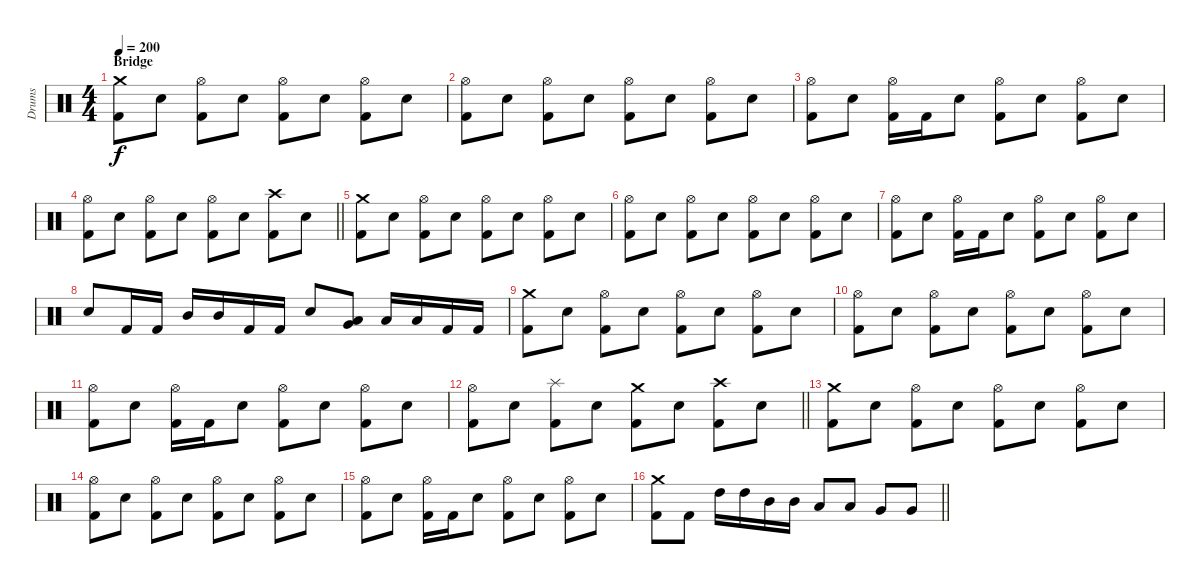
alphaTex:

\track ("Drums" "Drums") {instrument percussion}
\staff {score}
\articulation defaults
\ts (4 4)
\section ("" "Bridge")
\tempo 200
\clef neutral
\ks c
("Crash medium (hit)" "Kick (hit) 2").8{dy f} "Electric Snare (hit)".8 ("Hi-Hat (open)" "Kick (hit) 2").8 "Electric Snare (hit)".8 ("Hi-Hat (open)" "Kick (hit) 2").8 "Electric Snare (hit)".8 ("Hi-Hat (open)" "Kick (hit) 2").8 "Electric Snare (hit)".8 |
("Hi-Hat (open)" "Kick (hit) 2").8 "Electric Snare (hit)".8 ("Hi-Hat (open)" "Kick (hit) 2").8 "Electric Snare (hit)".8 ("Hi-Hat (open)" "Kick (hit) 2").8 "Electric Snare (hit)".8 ("Hi-Hat (open)" "Kick (hit) 2").8 "Electric Snare (hit)".8 |
("Hi-Hat (open)" "Kick (hit) 2").8 "Electric Snare (hit)".8 ("Hi-Hat (open)" "Kick (hit) 2").16 "Kick (hit) 2".16 "Electric Snare (hit)".8 ("Hi-Hat (open)" "Kick (hit) 2").8 "Electric Snare (hit)".8 ("Hi-Hat (open)" "Kick (hit) 2").8 "Electric Snare (hit)".8 |
\barLineRight lightlight
("Hi-Hat (open)" "Kick (hit) 2").8 "Electric Snare (hit)".8 ("Hi-Hat (open)" "Kick (hit) 2").8 "Electric Snare (hit)".8 ("Hi-Hat (open)" "Kick (hit) 2").8 "Electric Snare (hit)".8 ("Crash high (hit)" "Kick (hit) 2").8 "Electric Snare (hit)".8 |
("Crash medium (hit)" "Kick (hit) 2").8 "Electric Snare (hit)".8 ("Hi-Hat (open)" "Kick (hit) 2").8 "Electric Snare (hit)".8 ("Hi-Hat (open)" "Kick (hit) 2").8 "Electric Snare (hit)".8 ("Hi-Hat (open)" "Kick (hit) 2").8 "Electric Snare (hit)".8 |
("Hi-Hat (open)" "Kick (hit) 2").8 "Electric Snare (hit)".8 ("Hi-Hat (open)" "Kick (hit) 2").8 "Electric Snare (hit)".8 ("Hi-Hat (open)" "Kick (hit) 2").8 "Electric Snare (hit)".8 ("Hi-Hat (open)" "Kick (hit) 2").8 "Electric Snare (hit)".8 |
("Hi-Hat (open)" "Kick (hit) 2").8 "Electric Snare (hit)".8 ("Hi-Hat (open)" "Kick (hit) 2").16 "Kick (hit) 2".16 "Electric Snare (hit)".8 ("Hi-Hat (open)" "Kick (hit) 2").8 "Electric Snare (hit)".8 ("Hi-Hat (open)" "Kick (hit) 2").8 "Electric Snare (hit)".8 |
"Electric Snare (hit)".8 "Kick (hit) 2".16 "Kick (hit) 2".16 "Mid Tom (hit)".16 "Mid Tom (hit)".16 "Kick (hit) 2".16 "Kick (hit) 2".16 "Electric Snare (hit)".8 ("Low Tom (hit)" "Very Low Tom (hit)").8 "Low Tom (hit)".16 "Low Tom (hit)".16 "Kick (hit) 2".16 "Kick (hit) 2".16 |
("Crash medium (hit)" "Kick (hit) 2").8 "Electric Snare (hit)".8 ("Hi-Hat (open)" "Kick (hit) 2").8 "Electric Snare (hit)".8 ("Hi-Hat (open)" "Kick (hit) 2").8 "Electric Snare (hit)".8 ("Hi-Hat (open)" "Kick (hit) 2").8 "Electric Snare (hit)".8 |
("Hi-Hat (open)" "Kick (hit) 2").8 "Electric Snare (hit)".8 ("Hi-Hat (open)" "Kick (hit) 2").8 "Electric Snare (hit)".8 ("Hi-Hat (open)" "Kick (hit) 2").8 "Electric Snare (hit)".8 ("Hi-Hat (open)" "Kick (hit) 2").8 "Electric Snare (hit)".8 |
("Hi-Hat (open)" "Kick (hit) 2").8 "Electric Snare (hit)".8 ("Hi-Hat (open)" "Kick (hit) 2").16 "Kick (hit) 2".16 "Electric Snare (hit)".8 ("Hi-Hat (open)" "Kick (hit) 2").8 "Electric Snare (hit)".8 ("Hi-Hat (open)" "Kick (hit) 2").8 "Electric Snare (hit)".8 |
\barLineRight lightlight
("Hi-Hat (open)" "Kick (hit) 2").8 "Electric Snare (hit)".8 ("Splash (hit)" "Kick (hit) 2").8 "Electric Snare (hit)".8 ("Crash medium (hit)" "Kick (hit) 2").8 "Electric Snare (hit)".8 ("Crash high (hit)" "Kick (hit) 2").8 "Electric Snare (hit)".8 |
("Crash medium (hit)" "Kick (hit) 2").8 "Electric Snare (hit)".8 ("Hi-Hat (open)" "Kick (hit) 2").8 "Electric Snare (hit)".8 ("Hi-Hat (open)" "Kick (hit) 2").8 "Electric Snare (hit)".8 ("Hi-Hat (open)" "Kick (hit) 2").8 "Electric Snare (hit)".8 |
("Hi-Hat (open)" "Kick (hit) 2").8 "Electric Snare (hit)".8 ("Hi-Hat (open)" "Kick (hit) 2").8 "Electric Snare (hit)".8 ("Hi-Hat (open)" "Kick (hit) 2").8 "Electric Snare (hit)".8 ("Hi-Hat (open)" "Kick (hit) 2").8 "Electric Snare (hit)".8 |
("Hi-Hat (open)" "Kick (hit) 2").8 "Electric Snare (hit)".8 ("Hi-Hat (open)" "Kick (hit) 2").16 "Kick (hit) 2".16 "Electric Snare (hit)".8 ("Hi-Hat (open)" "Kick (hit) 2").8 "Electric Snare (hit)".8 ("Hi-Hat (open)" "Kick (hit) 2").8 "Electric Snare (hit)".8 |
\barLineRight lightlight
("Crash medium (hit)" "Kick (hit) 2").8 "Kick (hit) 2".8 "High Tom (hit)".16 "High Tom (hit)".16 "Mid Tom (hit)".16 "Mid Tom (hit)".16 "Low Tom (hit)".8 "Low Tom (hit)".8 "Very Low Tom (hit)".8 "Very Low Tom (hit)".8
